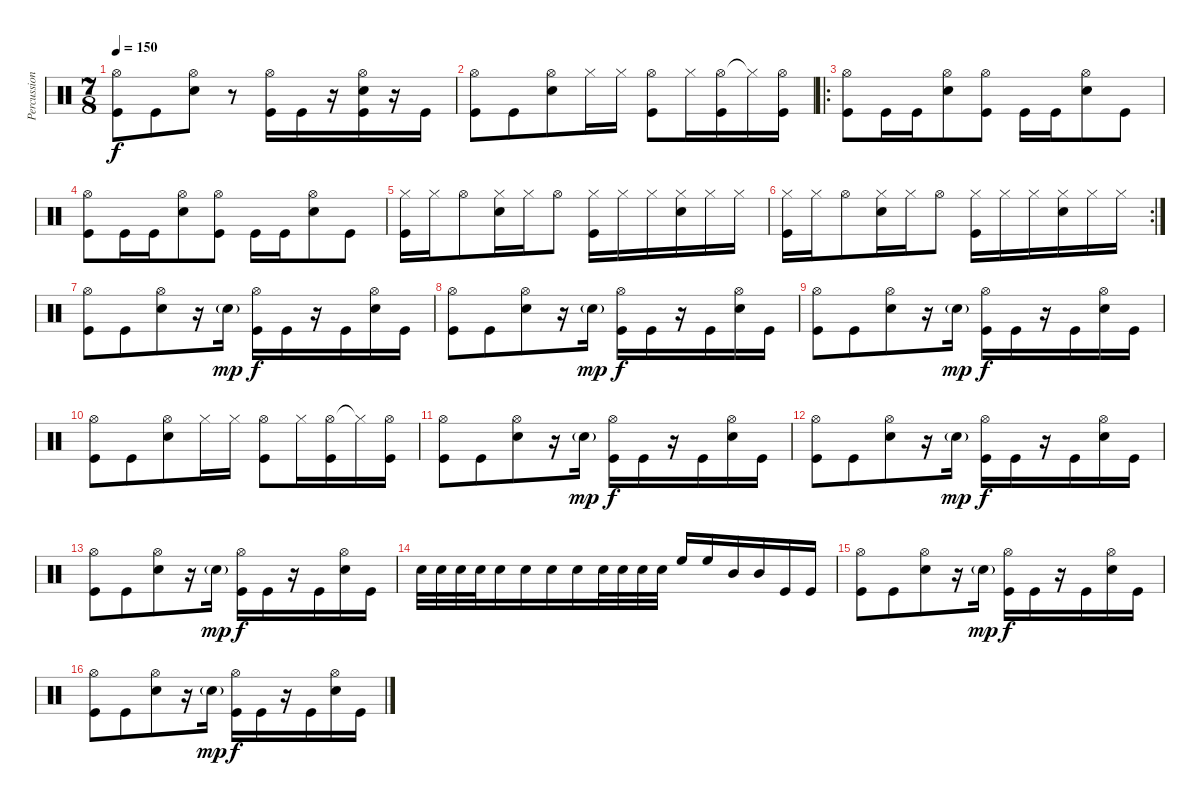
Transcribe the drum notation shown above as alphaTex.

\track ("Percussion" "Percussion") {instrument percussion}
\staff {score}
\articulation defaults
\ts (7 8)
\tempo 150
\clef neutral
\ks c
("Hi-Hat (open)" "Kick (hit)").8{dy f} "Kick (hit)".8 ("Hi-Hat (open)" "Snare (hit) 2").8 r.8 ("Hi-Hat (open)" "Kick (hit)").16 "Kick (hit)".16 r.16 ("Hi-Hat (open)" "Snare (hit) 2" "Kick (hit)").16 r.16 "Kick (hit)".16 |
("Hi-Hat (open)" "Kick (hit)").8 "Kick (hit)".8 ("Hi-Hat (open)" "Snare (hit) 2").8 "Hi-Hat (closed)".16 "Hi-Hat (closed)".16 ("Hi-Hat (open)" "Kick (hit)").8 "Hi-Hat (closed)".16 ("Hi-Hat (open)" "Kick (hit)").16 "Hi-Hat (closed)"{t}.16 ("Hi-Hat (open)" "Kick (hit)").16 |
\ro
("Hi-Hat (open)" "Kick (hit)").8 "Kick (hit)".16 "Kick (hit)".16 ("Hi-Hat (open)" "Snare (hit) 2").8 ("Hi-Hat (open)" "Kick (hit)").8 "Kick (hit)".16 "Kick (hit)".16 ("Hi-Hat (open)" "Snare (hit) 2").8 "Kick (hit)".8 |
("Hi-Hat (open)" "Kick (hit)").8 "Kick (hit)".16 "Kick (hit)".16 ("Hi-Hat (open)" "Snare (hit) 2").8 ("Hi-Hat (open)" "Kick (hit)").8 "Kick (hit)".16 "Kick (hit)".16 ("Hi-Hat (open)" "Snare (hit) 2").8 "Kick (hit)".8 |
("Hi-Hat (closed)" "Kick (hit)").16 "Hi-Hat (closed)".16 "Hi-Hat (open)".8 ("Hi-Hat (closed)" "Snare (hit) 2").16 "Hi-Hat (closed)".16 "Hi-Hat (open)".8 ("Hi-Hat (closed)" "Kick (hit)").16 "Hi-Hat (closed)".16 "Hi-Hat (closed)".16 ("Hi-Hat (closed)" "Snare (hit) 2").16 "Hi-Hat (closed)".16 "Hi-Hat (closed)".16 |
\rc 2
("Hi-Hat (closed)" "Kick (hit)").16 "Hi-Hat (closed)".16 "Hi-Hat (open)".8 ("Hi-Hat (closed)" "Snare (hit) 2").16 "Hi-Hat (closed)".16 "Hi-Hat (open)".8 ("Hi-Hat (closed)" "Kick (hit)").16 "Hi-Hat (closed)".16 "Hi-Hat (closed)".16 ("Hi-Hat (closed)" "Snare (hit) 2").16 "Hi-Hat (closed)".16 "Hi-Hat (closed)".16 |
("Hi-Hat (open)" "Kick (hit)").8 "Kick (hit)".8 ("Hi-Hat (open)" "Snare (hit) 2").8 r.16 "Snare (hit) 2"{g}.16{dy mp} ("Hi-Hat (open)" "Kick (hit)").16{dy f} "Kick (hit)".16 r.16 "Kick (hit)".16 ("Hi-Hat (open)" "Snare (hit) 2").16 "Kick (hit)".16 |
("Hi-Hat (open)" "Kick (hit)").8 "Kick (hit)".8 ("Hi-Hat (open)" "Snare (hit) 2").8 r.16 "Snare (hit) 2"{g}.16{dy mp} ("Hi-Hat (open)" "Kick (hit)").16{dy f} "Kick (hit)".16 r.16 "Kick (hit)".16 ("Hi-Hat (open)" "Snare (hit) 2").16 "Kick (hit)".16 |
("Hi-Hat (open)" "Kick (hit)").8 "Kick (hit)".8 ("Hi-Hat (open)" "Snare (hit) 2").8 r.16 "Snare (hit) 2"{g}.16{dy mp} ("Hi-Hat (open)" "Kick (hit)").16{dy f} "Kick (hit)".16 r.16 "Kick (hit)".16 ("Hi-Hat (open)" "Snare (hit) 2").16 "Kick (hit)".16 |
("Hi-Hat (open)" "Kick (hit)").8 "Kick (hit)".8 ("Hi-Hat (open)" "Snare (hit) 2").8 "Hi-Hat (closed)".16 "Hi-Hat (closed)".16 ("Hi-Hat (open)" "Kick (hit)").8 "Hi-Hat (closed)".16 ("Hi-Hat (open)" "Kick (hit)").16 "Hi-Hat (closed)"{t}.16 ("Hi-Hat (open)" "Kick (hit)").16 |
("Hi-Hat (open)" "Kick (hit)").8 "Kick (hit)".8 ("Hi-Hat (open)" "Snare (hit) 2").8 r.16 "Snare (hit) 2"{g}.16{dy mp} ("Hi-Hat (open)" "Kick (hit)").16{dy f} "Kick (hit)".16 r.16 "Kick (hit)".16 ("Hi-Hat (open)" "Snare (hit) 2").16 "Kick (hit)".16 |
("Hi-Hat (open)" "Kick (hit)").8 "Kick (hit)".8 ("Hi-Hat (open)" "Snare (hit) 2").8 r.16 "Snare (hit) 2"{g}.16{dy mp} ("Hi-Hat (open)" "Kick (hit)").16{dy f} "Kick (hit)".16 r.16 "Kick (hit)".16 ("Hi-Hat (open)" "Snare (hit) 2").16 "Kick (hit)".16 |
("Hi-Hat (open)" "Kick (hit)").8 "Kick (hit)".8 ("Hi-Hat (open)" "Snare (hit) 2").8 r.16 "Snare (hit) 2"{g}.16{dy mp} ("Hi-Hat (open)" "Kick (hit)").16{dy f} "Kick (hit)".16 r.16 "Kick (hit)".16 ("Hi-Hat (open)" "Snare (hit) 2").16 "Kick (hit)".16 |
"Snare (hit) 2".32 "Snare (hit) 2".32 "Snare (hit) 2".32 "Snare (hit) 2".32 "Snare (hit) 2".16 "Snare (hit) 2".16 "Snare (hit) 2".16 "Snare (hit) 2".16 "Snare (hit) 2".32 "Snare (hit) 2".32 "Snare (hit) 2".32 "Snare (hit) 2".32 "High Floor Tom (hit)".16 "High Floor Tom (hit)".16 "Mid Tom (hit)".16 "Mid Tom (hit)".16 "Kick (hit)".16 "Kick (hit)".16 |
("Hi-Hat (open)" "Kick (hit)").8 "Kick (hit)".8 ("Hi-Hat (open)" "Snare (hit) 2").8 r.16 "Snare (hit) 2"{g}.16{dy mp} ("Hi-Hat (open)" "Kick (hit)").16{dy f} "Kick (hit)".16 r.16 "Kick (hit)".16 ("Hi-Hat (open)" "Snare (hit) 2").16 "Kick (hit)".16 |
("Hi-Hat (open)" "Kick (hit)").8 "Kick (hit)".8 ("Hi-Hat (open)" "Snare (hit) 2").8 r.16 "Snare (hit) 2"{g}.16{dy mp} ("Hi-Hat (open)" "Kick (hit)").16{dy f} "Kick (hit)".16 r.16 "Kick (hit)".16 ("Hi-Hat (open)" "Snare (hit) 2").16 "Kick (hit)".16
